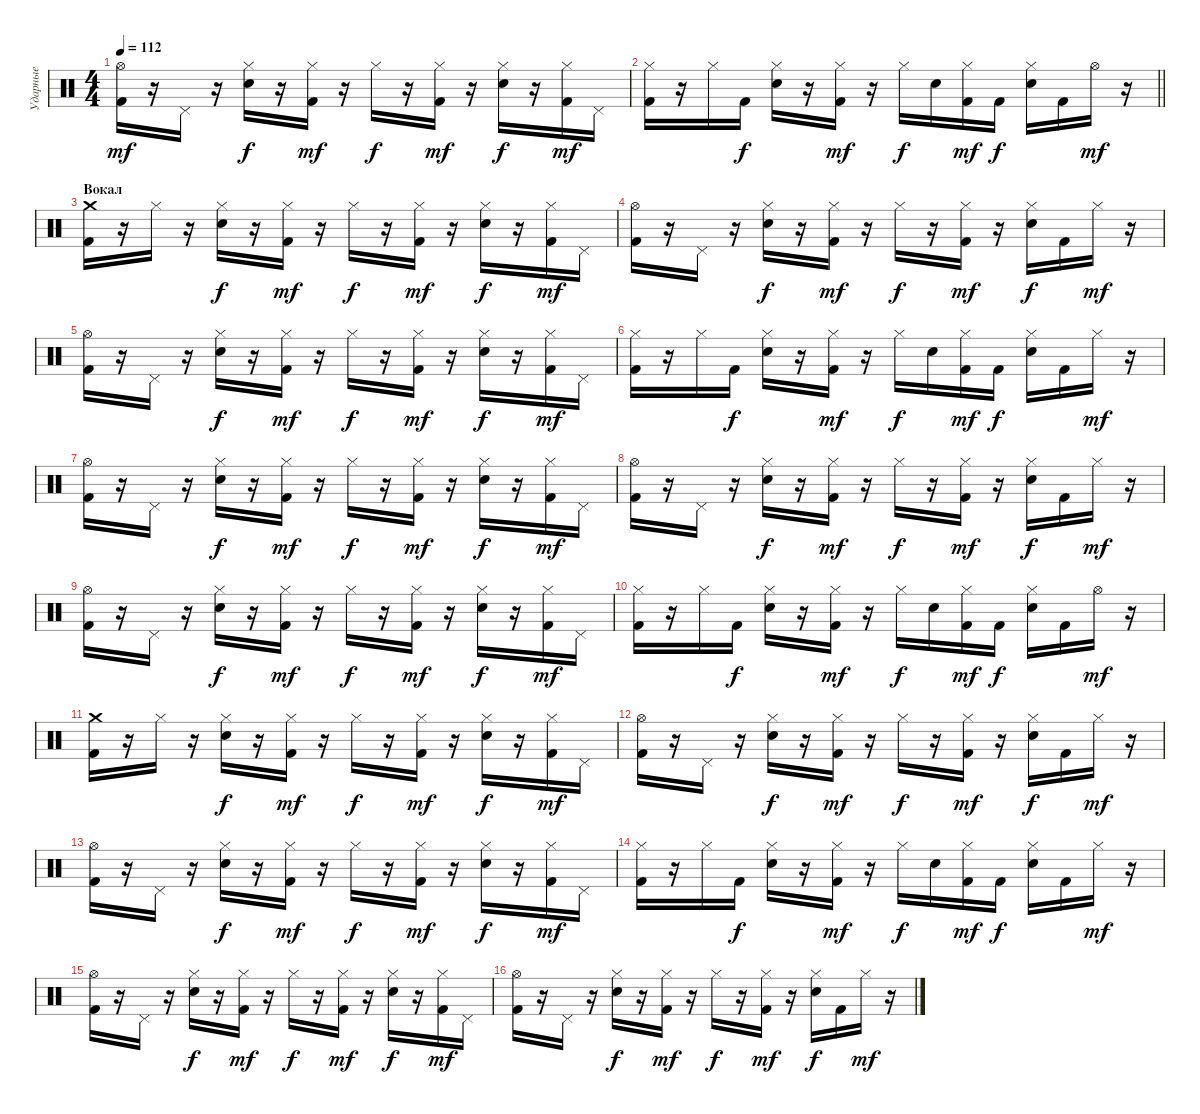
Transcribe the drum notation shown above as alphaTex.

\track ("Ударные" "Ударные") {instrument percussion}
\staff {score}
\articulation defaults
\ts (4 4)
\tempo 112
\clef neutral
\ks c
("Hi-Hat (open)" "Kick (hit) 2").16{dy mf} r.16 "Pedal Hi-Hat (hit)".16 r.16 ("Hi-Hat (closed)" "Electric Snare (hit)").16{dy f} r.16 ("Hi-Hat (closed)" "Kick (hit) 2").16{dy mf} r.16 "Hi-Hat (closed)".16{dy f} r.16 ("Hi-Hat (closed)" "Kick (hit) 2").16{dy mf} r.16 ("Hi-Hat (closed)" "Electric Snare (hit)").16{dy f} r.16 ("Hi-Hat (closed)" "Kick (hit) 2").16{dy mf} "Pedal Hi-Hat (hit)".16 |
\barLineRight lightlight
("Hi-Hat (closed)" "Kick (hit) 2").16 r.16 "Hi-Hat (closed)".16 "Kick (hit) 2".16{dy f} ("Hi-Hat (closed)" "Electric Snare (hit)").16 r.16 ("Hi-Hat (closed)" "Kick (hit) 2").16{dy mf} r.16 "Hi-Hat (closed)".16{dy f} "Electric Snare (hit)".16 ("Hi-Hat (closed)" "Kick (hit) 2").16{dy mf} "Kick (hit) 2".16{dy f} ("Hi-Hat (closed)" "Electric Snare (hit)").16 "Kick (hit) 2".16 "Hi-Hat (open)".16{dy mf} r.16 |
\section ("" "Вокал")
("Crash medium (hit)" "Kick (hit) 2").16 r.16 "Hi-Hat (closed)".16 r.16 ("Hi-Hat (closed)" "Electric Snare (hit)").16{dy f} r.16 ("Hi-Hat (closed)" "Kick (hit) 2").16{dy mf} r.16 "Hi-Hat (closed)".16{dy f} r.16 ("Hi-Hat (closed)" "Kick (hit) 2").16{dy mf} r.16 ("Hi-Hat (closed)" "Electric Snare (hit)").16{dy f} r.16 ("Hi-Hat (closed)" "Kick (hit) 2").16{dy mf} "Pedal Hi-Hat (hit)".16 |
("Hi-Hat (open)" "Kick (hit) 2").16 r.16 "Pedal Hi-Hat (hit)".16 r.16 ("Hi-Hat (closed)" "Electric Snare (hit)").16{dy f} r.16 ("Hi-Hat (closed)" "Kick (hit) 2").16{dy mf} r.16 "Hi-Hat (closed)".16{dy f} r.16 ("Hi-Hat (closed)" "Kick (hit) 2").16{dy mf} r.16 ("Hi-Hat (closed)" "Electric Snare (hit)").16{dy f} "Kick (hit) 2".16 "Hi-Hat (closed)".16{dy mf} r.16 |
("Hi-Hat (open)" "Kick (hit) 2").16 r.16 "Pedal Hi-Hat (hit)".16 r.16 ("Hi-Hat (closed)" "Electric Snare (hit)").16{dy f} r.16 ("Hi-Hat (closed)" "Kick (hit) 2").16{dy mf} r.16 "Hi-Hat (closed)".16{dy f} r.16 ("Hi-Hat (closed)" "Kick (hit) 2").16{dy mf} r.16 ("Hi-Hat (closed)" "Electric Snare (hit)").16{dy f} r.16 ("Hi-Hat (closed)" "Kick (hit) 2").16{dy mf} "Pedal Hi-Hat (hit)".16 |
("Hi-Hat (closed)" "Kick (hit) 2").16 r.16 "Hi-Hat (closed)".16 "Kick (hit) 2".16{dy f} ("Hi-Hat (closed)" "Electric Snare (hit)").16 r.16 ("Hi-Hat (closed)" "Kick (hit) 2").16{dy mf} r.16 "Hi-Hat (closed)".16{dy f} "Electric Snare (hit)".16 ("Hi-Hat (closed)" "Kick (hit) 2").16{dy mf} "Kick (hit) 2".16{dy f} ("Hi-Hat (closed)" "Electric Snare (hit)").16 "Kick (hit) 2".16 "Hi-Hat (closed)".16{dy mf} r.16 |
("Hi-Hat (open)" "Kick (hit) 2").16 r.16 "Pedal Hi-Hat (hit)".16 r.16 ("Hi-Hat (closed)" "Electric Snare (hit)").16{dy f} r.16 ("Hi-Hat (closed)" "Kick (hit) 2").16{dy mf} r.16 "Hi-Hat (closed)".16{dy f} r.16 ("Hi-Hat (closed)" "Kick (hit) 2").16{dy mf} r.16 ("Hi-Hat (closed)" "Electric Snare (hit)").16{dy f} r.16 ("Hi-Hat (closed)" "Kick (hit) 2").16{dy mf} "Pedal Hi-Hat (hit)".16 |
("Hi-Hat (open)" "Kick (hit) 2").16 r.16 "Pedal Hi-Hat (hit)".16 r.16 ("Hi-Hat (closed)" "Electric Snare (hit)").16{dy f} r.16 ("Hi-Hat (closed)" "Kick (hit) 2").16{dy mf} r.16 "Hi-Hat (closed)".16{dy f} r.16 ("Hi-Hat (closed)" "Kick (hit) 2").16{dy mf} r.16 ("Hi-Hat (closed)" "Electric Snare (hit)").16{dy f} "Kick (hit) 2".16 "Hi-Hat (closed)".16{dy mf} r.16 |
("Hi-Hat (open)" "Kick (hit) 2").16 r.16 "Pedal Hi-Hat (hit)".16 r.16 ("Hi-Hat (closed)" "Electric Snare (hit)").16{dy f} r.16 ("Hi-Hat (closed)" "Kick (hit) 2").16{dy mf} r.16 "Hi-Hat (closed)".16{dy f} r.16 ("Hi-Hat (closed)" "Kick (hit) 2").16{dy mf} r.16 ("Hi-Hat (closed)" "Electric Snare (hit)").16{dy f} r.16 ("Hi-Hat (closed)" "Kick (hit) 2").16{dy mf} "Pedal Hi-Hat (hit)".16 |
("Hi-Hat (closed)" "Kick (hit) 2").16 r.16 "Hi-Hat (closed)".16 "Kick (hit) 2".16{dy f} ("Hi-Hat (closed)" "Electric Snare (hit)").16 r.16 ("Hi-Hat (closed)" "Kick (hit) 2").16{dy mf} r.16 "Hi-Hat (closed)".16{dy f} "Electric Snare (hit)".16 ("Hi-Hat (closed)" "Kick (hit) 2").16{dy mf} "Kick (hit) 2".16{dy f} ("Hi-Hat (closed)" "Electric Snare (hit)").16 "Kick (hit) 2".16 "Hi-Hat (open)".16{dy mf} r.16 |
("Crash medium (hit)" "Kick (hit) 2").16 r.16 "Hi-Hat (closed)".16 r.16 ("Hi-Hat (closed)" "Electric Snare (hit)").16{dy f} r.16 ("Hi-Hat (closed)" "Kick (hit) 2").16{dy mf} r.16 "Hi-Hat (closed)".16{dy f} r.16 ("Hi-Hat (closed)" "Kick (hit) 2").16{dy mf} r.16 ("Hi-Hat (closed)" "Electric Snare (hit)").16{dy f} r.16 ("Hi-Hat (closed)" "Kick (hit) 2").16{dy mf} "Pedal Hi-Hat (hit)".16 |
("Hi-Hat (open)" "Kick (hit) 2").16 r.16 "Pedal Hi-Hat (hit)".16 r.16 ("Hi-Hat (closed)" "Electric Snare (hit)").16{dy f} r.16 ("Hi-Hat (closed)" "Kick (hit) 2").16{dy mf} r.16 "Hi-Hat (closed)".16{dy f} r.16 ("Hi-Hat (closed)" "Kick (hit) 2").16{dy mf} r.16 ("Hi-Hat (closed)" "Electric Snare (hit)").16{dy f} "Kick (hit) 2".16 "Hi-Hat (closed)".16{dy mf} r.16 |
("Hi-Hat (open)" "Kick (hit) 2").16 r.16 "Pedal Hi-Hat (hit)".16 r.16 ("Hi-Hat (closed)" "Electric Snare (hit)").16{dy f} r.16 ("Hi-Hat (closed)" "Kick (hit) 2").16{dy mf} r.16 "Hi-Hat (closed)".16{dy f} r.16 ("Hi-Hat (closed)" "Kick (hit) 2").16{dy mf} r.16 ("Hi-Hat (closed)" "Electric Snare (hit)").16{dy f} r.16 ("Hi-Hat (closed)" "Kick (hit) 2").16{dy mf} "Pedal Hi-Hat (hit)".16 |
("Hi-Hat (closed)" "Kick (hit) 2").16 r.16 "Hi-Hat (closed)".16 "Kick (hit) 2".16{dy f} ("Hi-Hat (closed)" "Electric Snare (hit)").16 r.16 ("Hi-Hat (closed)" "Kick (hit) 2").16{dy mf} r.16 "Hi-Hat (closed)".16{dy f} "Electric Snare (hit)".16 ("Hi-Hat (closed)" "Kick (hit) 2").16{dy mf} "Kick (hit) 2".16{dy f} ("Hi-Hat (closed)" "Electric Snare (hit)").16 "Kick (hit) 2".16 "Hi-Hat (closed)".16{dy mf} r.16 |
("Hi-Hat (open)" "Kick (hit) 2").16 r.16 "Pedal Hi-Hat (hit)".16 r.16 ("Hi-Hat (closed)" "Electric Snare (hit)").16{dy f} r.16 ("Hi-Hat (closed)" "Kick (hit) 2").16{dy mf} r.16 "Hi-Hat (closed)".16{dy f} r.16 ("Hi-Hat (closed)" "Kick (hit) 2").16{dy mf} r.16 ("Hi-Hat (closed)" "Electric Snare (hit)").16{dy f} r.16 ("Hi-Hat (closed)" "Kick (hit) 2").16{dy mf} "Pedal Hi-Hat (hit)".16 |
("Hi-Hat (open)" "Kick (hit) 2").16 r.16 "Pedal Hi-Hat (hit)".16 r.16 ("Hi-Hat (closed)" "Electric Snare (hit)").16{dy f} r.16 ("Hi-Hat (closed)" "Kick (hit) 2").16{dy mf} r.16 "Hi-Hat (closed)".16{dy f} r.16 ("Hi-Hat (closed)" "Kick (hit) 2").16{dy mf} r.16 ("Hi-Hat (closed)" "Electric Snare (hit)").16{dy f} "Kick (hit) 2".16 "Hi-Hat (closed)".16{dy mf} r.16
